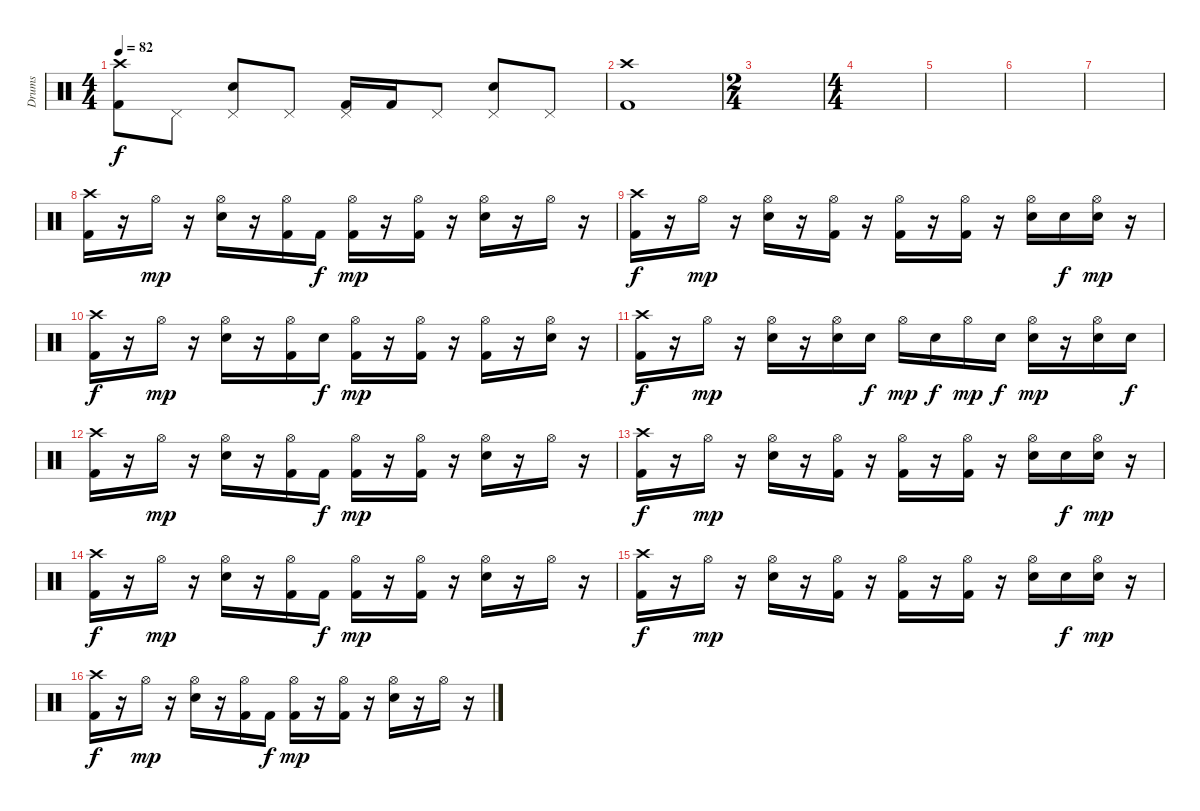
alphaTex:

\track ("Drums" "Drums") {instrument percussion}
\staff {score}
\articulation defaults
\ts (4 4)
\tempo 82
\clef neutral
\ks c
("Kick (hit) 2" "Crash high (hit)").8{dy f} "Pedal Hi-Hat (hit)".8 ("Snare (hit) 2" "Pedal Hi-Hat (hit)").8 "Pedal Hi-Hat (hit)".8 ("Kick (hit) 2" "Pedal Hi-Hat (hit)").16 "Kick (hit) 2".16 "Pedal Hi-Hat (hit)".8 ("Snare (hit) 2" "Pedal Hi-Hat (hit)").8 "Pedal Hi-Hat (hit)".8 |
("Kick (hit) 2" "Crash high (hit)").1 |
\ts (2 4)
|
\ts (4 4)
|
|
|
|
("Kick (hit) 2" "Crash high (hit)").16 r.16 "Hi-Hat (open)".16{dy mp} r.16 ("Snare (hit) 2" "Hi-Hat (open)").16 r.16 ("Kick (hit) 2" "Hi-Hat (open)").16 "Kick (hit) 2".16{dy f} ("Kick (hit) 2" "Hi-Hat (open)").16{dy mp} r.16 ("Kick (hit) 2" "Hi-Hat (open)").16 r.16 ("Snare (hit) 2" "Hi-Hat (open)").16 r.16 "Hi-Hat (open)".16 r.16 |
("Kick (hit) 2" "Crash high (hit)").16{dy f} r.16 "Hi-Hat (open)".16{dy mp} r.16 ("Snare (hit) 2" "Hi-Hat (open)").16 r.16 ("Kick (hit) 2" "Hi-Hat (open)").16 r.16 ("Kick (hit) 2" "Hi-Hat (open)").16 r.16 ("Kick (hit) 2" "Hi-Hat (open)").16 r.16 ("Snare (hit) 2" "Hi-Hat (open)").16 "Snare (hit) 2".16{dy f} ("Snare (hit) 2" "Hi-Hat (open)").16{dy mp} r.16 |
("Kick (hit) 2" "Crash high (hit)").16{dy f} r.16 "Hi-Hat (open)".16{dy mp} r.16 ("Snare (hit) 2" "Hi-Hat (open)").16 r.16 ("Kick (hit) 2" "Hi-Hat (open)").16 "Snare (hit) 2".16{dy f} ("Kick (hit) 2" "Hi-Hat (open)").16{dy mp} r.16 ("Kick (hit) 2" "Hi-Hat (open)").16 r.16 ("Kick (hit) 2" "Hi-Hat (open)").16 r.16 ("Snare (hit) 2" "Hi-Hat (open)").16 r.16 |
("Kick (hit) 2" "Crash high (hit)").16{dy f} r.16 "Hi-Hat (open)".16{dy mp} r.16 ("Snare (hit) 2" "Hi-Hat (open)").16 r.16 ("Snare (hit) 2" "Hi-Hat (open)").16 "Snare (hit) 2".16{dy f} "Hi-Hat (open)".16{dy mp} "Snare (hit) 2".16{dy f} "Hi-Hat (open)".16{dy mp} "Snare (hit) 2".16{dy f} ("Snare (hit) 2" "Hi-Hat (open)").16{dy mp} r.16 ("Snare (hit) 2" "Hi-Hat (open)").16 "Snare (hit) 2".16{dy f} |
("Kick (hit) 2" "Crash high (hit)").16 r.16 "Hi-Hat (open)".16{dy mp} r.16 ("Snare (hit) 2" "Hi-Hat (open)").16 r.16 ("Kick (hit) 2" "Hi-Hat (open)").16 "Kick (hit) 2".16{dy f} ("Kick (hit) 2" "Hi-Hat (open)").16{dy mp} r.16 ("Kick (hit) 2" "Hi-Hat (open)").16 r.16 ("Snare (hit) 2" "Hi-Hat (open)").16 r.16 "Hi-Hat (open)".16 r.16 |
("Kick (hit) 2" "Crash high (hit)").16{dy f} r.16 "Hi-Hat (open)".16{dy mp} r.16 ("Snare (hit) 2" "Hi-Hat (open)").16 r.16 ("Kick (hit) 2" "Hi-Hat (open)").16 r.16 ("Kick (hit) 2" "Hi-Hat (open)").16 r.16 ("Kick (hit) 2" "Hi-Hat (open)").16 r.16 ("Snare (hit) 2" "Hi-Hat (open)").16 "Snare (hit) 2".16{dy f} ("Snare (hit) 2" "Hi-Hat (open)").16{dy mp} r.16 |
("Kick (hit) 2" "Crash high (hit)").16{dy f} r.16 "Hi-Hat (open)".16{dy mp} r.16 ("Snare (hit) 2" "Hi-Hat (open)").16 r.16 ("Kick (hit) 2" "Hi-Hat (open)").16 "Kick (hit) 2".16{dy f} ("Kick (hit) 2" "Hi-Hat (open)").16{dy mp} r.16 ("Kick (hit) 2" "Hi-Hat (open)").16 r.16 ("Snare (hit) 2" "Hi-Hat (open)").16 r.16 "Hi-Hat (open)".16 r.16 |
("Kick (hit) 2" "Crash high (hit)").16{dy f} r.16 "Hi-Hat (open)".16{dy mp} r.16 ("Snare (hit) 2" "Hi-Hat (open)").16 r.16 ("Kick (hit) 2" "Hi-Hat (open)").16 r.16 ("Kick (hit) 2" "Hi-Hat (open)").16 r.16 ("Kick (hit) 2" "Hi-Hat (open)").16 r.16 ("Snare (hit) 2" "Hi-Hat (open)").16 "Snare (hit) 2".16{dy f} ("Snare (hit) 2" "Hi-Hat (open)").16{dy mp} r.16 |
("Kick (hit) 2" "Crash high (hit)").16{dy f} r.16 "Hi-Hat (open)".16{dy mp} r.16 ("Snare (hit) 2" "Hi-Hat (open)").16 r.16 ("Kick (hit) 2" "Hi-Hat (open)").16 "Kick (hit) 2".16{dy f} ("Kick (hit) 2" "Hi-Hat (open)").16{dy mp} r.16 ("Kick (hit) 2" "Hi-Hat (open)").16 r.16 ("Snare (hit) 2" "Hi-Hat (open)").16 r.16 "Hi-Hat (open)".16 r.16
